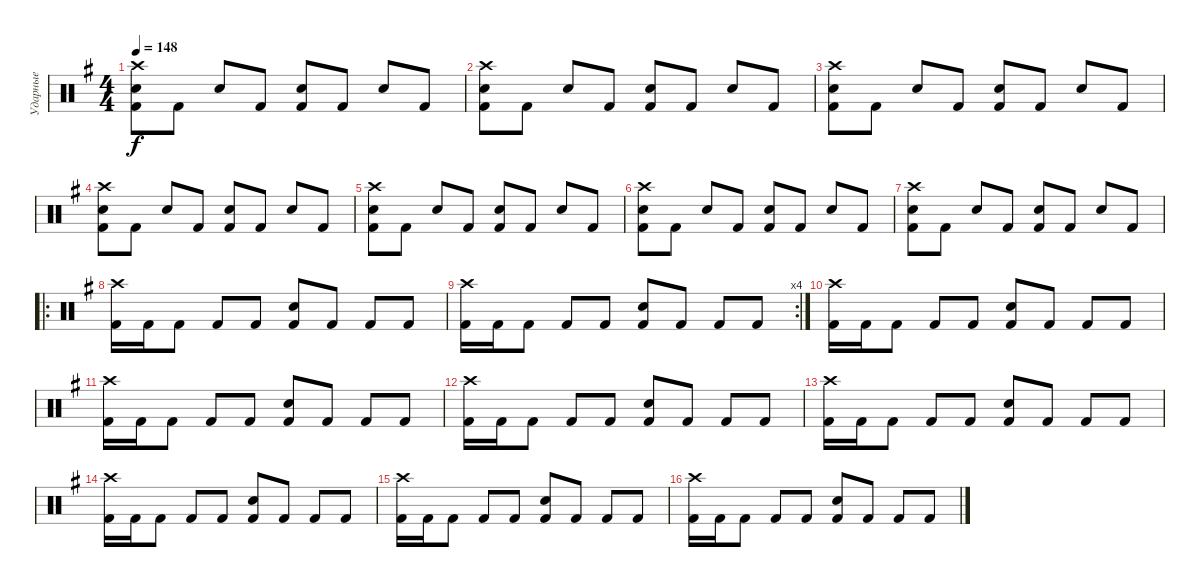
\track ("Ударные" "Ударные") {instrument percussion}
\staff {score}
\articulation defaults
\ts (4 4)
\tempo 148
\clef neutral
\ks g
("Crash high (hit)" "Snare (hit) 2" "Kick (hit) 2").8{dy f} "Kick (hit) 2".8 "Snare (hit) 2".8 "Kick (hit) 2".8 ("Snare (hit) 2" "Kick (hit) 2").8 "Kick (hit) 2".8 "Snare (hit) 2".8 "Kick (hit) 2".8 |
("Crash high (hit)" "Snare (hit) 2" "Kick (hit) 2").8 "Kick (hit) 2".8 "Snare (hit) 2".8 "Kick (hit) 2".8 ("Snare (hit) 2" "Kick (hit) 2").8 "Kick (hit) 2".8 "Snare (hit) 2".8 "Kick (hit) 2".8 |
("Crash high (hit)" "Snare (hit) 2" "Kick (hit) 2").8 "Kick (hit) 2".8 "Snare (hit) 2".8 "Kick (hit) 2".8 ("Snare (hit) 2" "Kick (hit) 2").8 "Kick (hit) 2".8 "Snare (hit) 2".8 "Kick (hit) 2".8 |
("Crash high (hit)" "Snare (hit) 2" "Kick (hit) 2").8 "Kick (hit) 2".8 "Snare (hit) 2".8 "Kick (hit) 2".8 ("Snare (hit) 2" "Kick (hit) 2").8 "Kick (hit) 2".8 "Snare (hit) 2".8 "Kick (hit) 2".8 |
("Crash high (hit)" "Snare (hit) 2" "Kick (hit) 2").8 "Kick (hit) 2".8 "Snare (hit) 2".8 "Kick (hit) 2".8 ("Snare (hit) 2" "Kick (hit) 2").8 "Kick (hit) 2".8 "Snare (hit) 2".8 "Kick (hit) 2".8 |
("Crash high (hit)" "Snare (hit) 2" "Kick (hit) 2").8 "Kick (hit) 2".8 "Snare (hit) 2".8 "Kick (hit) 2".8 ("Snare (hit) 2" "Kick (hit) 2").8 "Kick (hit) 2".8 "Snare (hit) 2".8 "Kick (hit) 2".8 |
("Crash high (hit)" "Snare (hit) 2" "Kick (hit) 2").8 "Kick (hit) 2".8 "Snare (hit) 2".8 "Kick (hit) 2".8 ("Snare (hit) 2" "Kick (hit) 2").8 "Kick (hit) 2".8 "Snare (hit) 2".8 "Kick (hit) 2".8 |
\ro
("Crash high (hit)" "Kick (hit) 2").16 "Kick (hit) 2".16 "Kick (hit) 2".8 "Kick (hit) 2".8 "Kick (hit) 2".8 ("Snare (hit) 2" "Kick (hit) 2").8 "Kick (hit) 2".8 "Kick (hit) 2".8 "Kick (hit) 2".8 |
\rc 4
("Crash high (hit)" "Kick (hit) 2").16 "Kick (hit) 2".16 "Kick (hit) 2".8 "Kick (hit) 2".8 "Kick (hit) 2".8 ("Snare (hit) 2" "Kick (hit) 2").8 "Kick (hit) 2".8 "Kick (hit) 2".8 "Kick (hit) 2".8 |
("Crash high (hit)" "Kick (hit) 2").16 "Kick (hit) 2".16 "Kick (hit) 2".8 "Kick (hit) 2".8 "Kick (hit) 2".8 ("Snare (hit) 2" "Kick (hit) 2").8 "Kick (hit) 2".8 "Kick (hit) 2".8 "Kick (hit) 2".8 |
("Crash high (hit)" "Kick (hit) 2").16 "Kick (hit) 2".16 "Kick (hit) 2".8 "Kick (hit) 2".8 "Kick (hit) 2".8 ("Snare (hit) 2" "Kick (hit) 2").8 "Kick (hit) 2".8 "Kick (hit) 2".8 "Kick (hit) 2".8 |
("Crash high (hit)" "Kick (hit) 2").16 "Kick (hit) 2".16 "Kick (hit) 2".8 "Kick (hit) 2".8 "Kick (hit) 2".8 ("Snare (hit) 2" "Kick (hit) 2").8 "Kick (hit) 2".8 "Kick (hit) 2".8 "Kick (hit) 2".8 |
("Crash high (hit)" "Kick (hit) 2").16 "Kick (hit) 2".16 "Kick (hit) 2".8 "Kick (hit) 2".8 "Kick (hit) 2".8 ("Snare (hit) 2" "Kick (hit) 2").8 "Kick (hit) 2".8 "Kick (hit) 2".8 "Kick (hit) 2".8 |
("Crash high (hit)" "Kick (hit) 2").16 "Kick (hit) 2".16 "Kick (hit) 2".8 "Kick (hit) 2".8 "Kick (hit) 2".8 ("Snare (hit) 2" "Kick (hit) 2").8 "Kick (hit) 2".8 "Kick (hit) 2".8 "Kick (hit) 2".8 |
("Crash high (hit)" "Kick (hit) 2").16 "Kick (hit) 2".16 "Kick (hit) 2".8 "Kick (hit) 2".8 "Kick (hit) 2".8 ("Snare (hit) 2" "Kick (hit) 2").8 "Kick (hit) 2".8 "Kick (hit) 2".8 "Kick (hit) 2".8 |
("Crash high (hit)" "Kick (hit) 2").16 "Kick (hit) 2".16 "Kick (hit) 2".8 "Kick (hit) 2".8 "Kick (hit) 2".8 ("Snare (hit) 2" "Kick (hit) 2").8 "Kick (hit) 2".8 "Kick (hit) 2".8 "Kick (hit) 2".8
